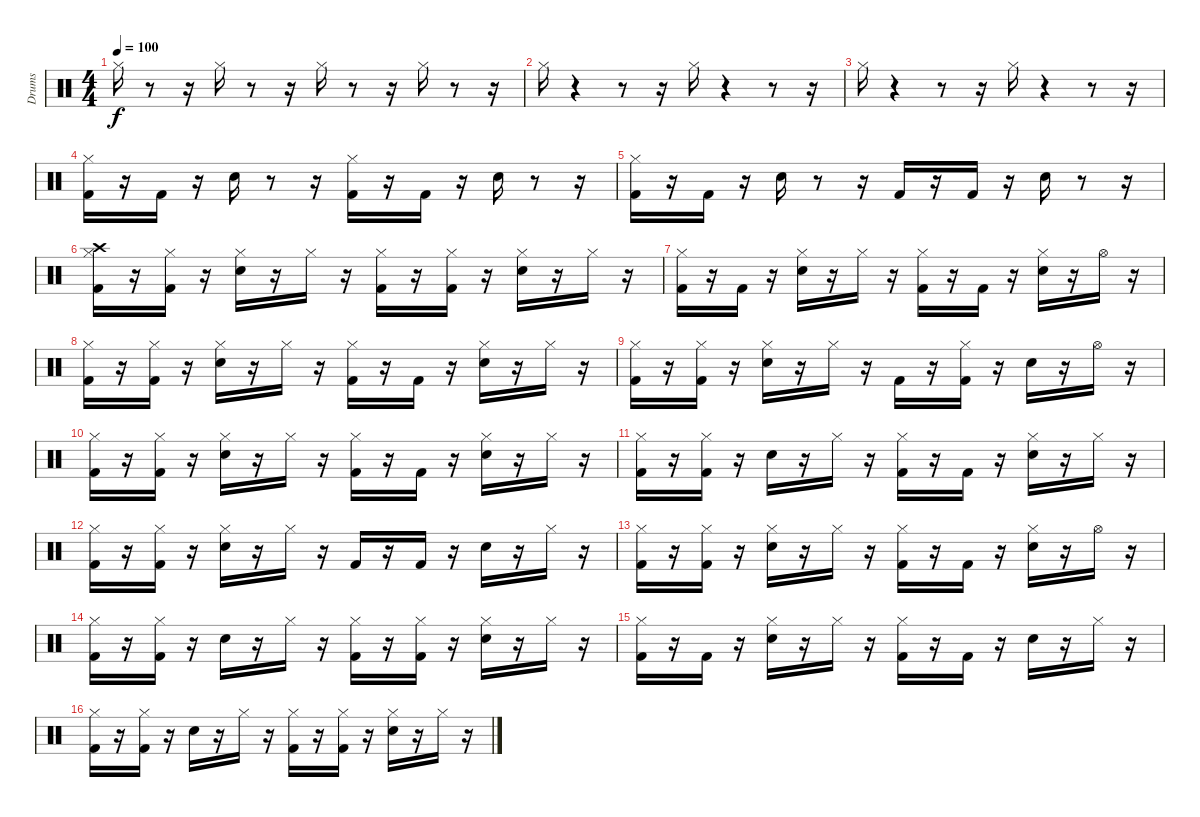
\track ("Drums" "Drums") {instrument percussion}
\staff {score}
\articulation defaults
\ts (4 4)
\tempo 100
\clef neutral
\ks c "Hi-Hat (closed)".16{dy f}
r.8 r.16 "Hi-Hat (closed)".16 r.8 r.16 "Hi-Hat (closed)".16 r.8 r.16 "Hi-Hat (closed)".16 r.8 r.16 |
"Hi-Hat (closed)".16 r.4 r.8 r.16 "Hi-Hat (closed)".16 r.4 r.8 r.16 |
"Hi-Hat (closed)".16 r.4 r.8 r.16 "Hi-Hat (closed)".16 r.4 r.8 r.16 |
("Kick (hit) 2" "Hi-Hat (closed)").16 r.16 "Kick (hit) 2".16 r.16 "Snare (hit) 2".16 r.8 r.16 ("Kick (hit) 2" "Hi-Hat (closed)").16 r.16 "Kick (hit) 2".16 r.16 "Snare (hit) 2".16 r.8 r.16 |
("Kick (hit) 2" "Hi-Hat (closed)").16 r.16 "Kick (hit) 2".16 r.16 "Snare (hit) 2".16 r.8 r.16 "Kick (hit) 2".16 r.16 "Kick (hit) 2".16 r.16 "Snare (hit) 2".16 r.8 r.16 |
("Kick (hit) 2" "Hi-Hat (closed)" "Crash high (hit)").16 r.16 ("Kick (hit) 2" "Hi-Hat (closed)").16 r.16 ("Snare (hit) 2" "Hi-Hat (closed)").16 r.16 "Hi-Hat (closed)".16 r.16 ("Kick (hit) 2" "Hi-Hat (closed)").16 r.16 ("Kick (hit) 2" "Hi-Hat (closed)").16 r.16 ("Snare (hit) 2" "Hi-Hat (closed)").16 r.16 "Hi-Hat (closed)".16 r.16 |
("Kick (hit) 2" "Hi-Hat (closed)").16 r.16 "Kick (hit) 2".16 r.16 ("Snare (hit) 2" "Hi-Hat (closed)").16 r.16 "Hi-Hat (closed)".16 r.16 ("Kick (hit) 2" "Hi-Hat (closed)").16 r.16 "Kick (hit) 2".16 r.16 ("Snare (hit) 2" "Hi-Hat (closed)").16 r.16 "Hi-Hat (open)".16 r.16 |
("Kick (hit) 2" "Hi-Hat (closed)").16 r.16 ("Kick (hit) 2" "Hi-Hat (closed)").16 r.16 ("Snare (hit) 2" "Hi-Hat (closed)").16 r.16 "Hi-Hat (closed)".16 r.16 ("Kick (hit) 2" "Hi-Hat (closed)").16 r.16 "Kick (hit) 2".16 r.16 ("Snare (hit) 2" "Hi-Hat (closed)").16 r.16 "Hi-Hat (closed)".16 r.16 |
("Kick (hit) 2" "Hi-Hat (closed)").16 r.16 ("Kick (hit) 2" "Hi-Hat (closed)").16 r.16 ("Snare (hit) 2" "Hi-Hat (closed)").16 r.16 "Hi-Hat (closed)".16 r.16 "Kick (hit) 2".16 r.16 ("Kick (hit) 2" "Hi-Hat (closed)").16 r.16 "Snare (hit) 2".16 r.16 "Hi-Hat (open)".16 r.16 |
("Kick (hit) 2" "Hi-Hat (closed)").16 r.16 ("Kick (hit) 2" "Hi-Hat (closed)").16 r.16 ("Snare (hit) 2" "Hi-Hat (closed)").16 r.16 "Hi-Hat (closed)".16 r.16 ("Kick (hit) 2" "Hi-Hat (closed)").16 r.16 "Kick (hit) 2".16 r.16 ("Snare (hit) 2" "Hi-Hat (closed)").16 r.16 "Hi-Hat (closed)".16 r.16 |
("Kick (hit) 2" "Hi-Hat (closed)").16 r.16 ("Kick (hit) 2" "Hi-Hat (closed)").16 r.16 "Snare (hit) 2".16 r.16 "Hi-Hat (closed)".16 r.16 ("Kick (hit) 2" "Hi-Hat (closed)").16 r.16 "Kick (hit) 2".16 r.16 ("Snare (hit) 2" "Hi-Hat (closed)").16 r.16 "Hi-Hat (closed)".16 r.16 |
("Kick (hit) 2" "Hi-Hat (closed)").16 r.16 ("Kick (hit) 2" "Hi-Hat (closed)").16 r.16 ("Snare (hit) 2" "Hi-Hat (closed)").16 r.16 "Hi-Hat (closed)".16 r.16 "Kick (hit) 2".16 r.16 "Kick (hit) 2".16 r.16 "Snare (hit) 2".16 r.16 "Hi-Hat (closed)".16 r.16 |
("Kick (hit) 2" "Hi-Hat (closed)").16 r.16 ("Kick (hit) 2" "Hi-Hat (closed)").16 r.16 ("Snare (hit) 2" "Hi-Hat (closed)").16 r.16 "Hi-Hat (closed)".16 r.16 ("Kick (hit) 2" "Hi-Hat (closed)").16 r.16 "Kick (hit) 2".16 r.16 ("Snare (hit) 2" "Hi-Hat (closed)").16 r.16 "Hi-Hat (open)".16 r.16 |
("Kick (hit) 2" "Hi-Hat (closed)").16 r.16 ("Kick (hit) 2" "Hi-Hat (closed)").16 r.16 "Snare (hit) 2".16 r.16 "Hi-Hat (closed)".16 r.16 ("Kick (hit) 2" "Hi-Hat (closed)").16 r.16 ("Kick (hit) 2" "Hi-Hat (closed)").16 r.16 ("Snare (hit) 2" "Hi-Hat (closed)").16 r.16 "Hi-Hat (closed)".16 r.16 |
("Kick (hit) 2" "Hi-Hat (closed)").16 r.16 "Kick (hit) 2".16 r.16 ("Snare (hit) 2" "Hi-Hat (closed)").16 r.16 "Hi-Hat (closed)".16 r.16 ("Kick (hit) 2" "Hi-Hat (closed)").16 r.16 "Kick (hit) 2".16 r.16 "Snare (hit) 2".16 r.16 "Hi-Hat (closed)".16 r.16 |
("Kick (hit) 2" "Hi-Hat (closed)").16 r.16 ("Kick (hit) 2" "Hi-Hat (closed)").16 r.16 "Snare (hit) 2".16 r.16 "Hi-Hat (closed)".16 r.16 ("Kick (hit) 2" "Hi-Hat (closed)").16 r.16 ("Kick (hit) 2" "Hi-Hat (closed)").16 r.16 ("Snare (hit) 2" "Hi-Hat (closed)").16 r.16 "Hi-Hat (closed)".16 r.16
